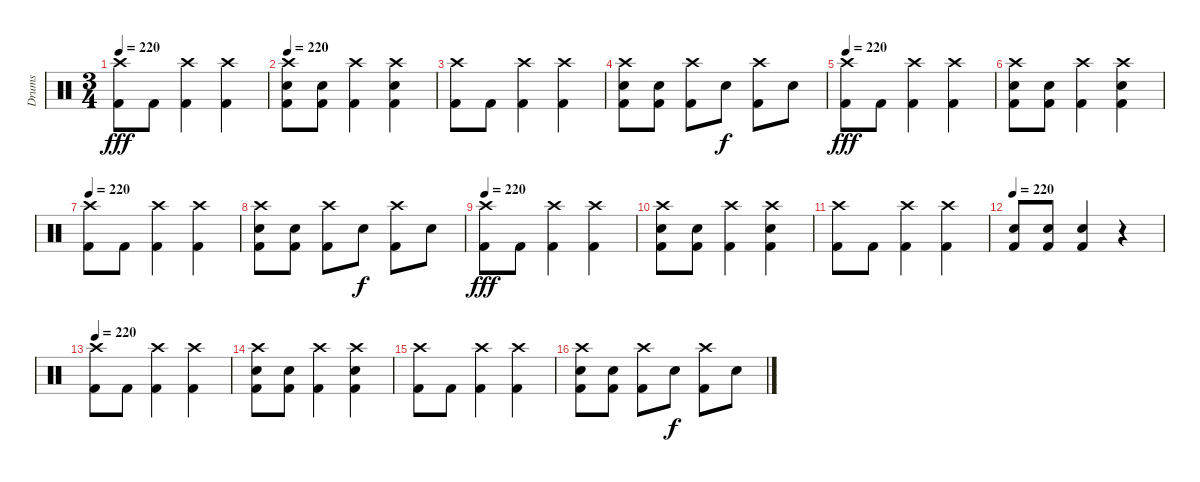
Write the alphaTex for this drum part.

\track ("Drums" "Drums") {instrument percussion}
\staff {score}
\articulation defaults
\ts (3 4)
\tempo 220
\clef neutral
\ks c
("Crash high (hit)" "Kick (hit) 2").8{dy fff} "Kick (hit) 2".8 ("Crash high (hit)" "Kick (hit) 2").4 ("Crash high (hit)" "Kick (hit) 2").4 |
\tempo 220
("Crash high (hit)" "Electric Snare (hit)" "Kick (hit) 2").8 ("Electric Snare (hit)" "Kick (hit) 2").8 ("Crash high (hit)" "Kick (hit) 2").4 ("Crash high (hit)" "Electric Snare (hit)" "Kick (hit) 2").4 |
("Crash high (hit)" "Kick (hit) 2").8 "Kick (hit) 2".8 ("Crash high (hit)" "Kick (hit) 2").4 ("Crash high (hit)" "Kick (hit) 2").4 |
("Crash high (hit)" "Electric Snare (hit)" "Kick (hit) 2").8 ("Electric Snare (hit)" "Kick (hit) 2").8 ("Crash high (hit)" "Kick (hit) 2").8 "Electric Snare (hit)".8{dy f} ("Crash high (hit)" "Kick (hit) 2").8 "Electric Snare (hit)".8 |
\tempo 220
("Crash high (hit)" "Kick (hit) 2").8{dy fff} "Kick (hit) 2".8 ("Crash high (hit)" "Kick (hit) 2").4 ("Crash high (hit)" "Kick (hit) 2").4 |
("Crash high (hit)" "Electric Snare (hit)" "Kick (hit) 2").8 ("Electric Snare (hit)" "Kick (hit) 2").8 ("Crash high (hit)" "Kick (hit) 2").4 ("Crash high (hit)" "Electric Snare (hit)" "Kick (hit) 2").4 |
\tempo 220
("Crash high (hit)" "Kick (hit) 2").8 "Kick (hit) 2".8 ("Crash high (hit)" "Kick (hit) 2").4 ("Crash high (hit)" "Kick (hit) 2").4 |
("Crash high (hit)" "Electric Snare (hit)" "Kick (hit) 2").8 ("Electric Snare (hit)" "Kick (hit) 2").8 ("Crash high (hit)" "Kick (hit) 2").8 "Electric Snare (hit)".8{dy f} ("Crash high (hit)" "Kick (hit) 2").8 "Electric Snare (hit)".8 |
\tempo 220
("Crash high (hit)" "Kick (hit) 2").8{dy fff} "Kick (hit) 2".8 ("Crash high (hit)" "Kick (hit) 2").4 ("Crash high (hit)" "Kick (hit) 2").4 |
("Crash high (hit)" "Electric Snare (hit)" "Kick (hit) 2").8 ("Electric Snare (hit)" "Kick (hit) 2").8 ("Crash high (hit)" "Kick (hit) 2").4 ("Crash high (hit)" "Electric Snare (hit)" "Kick (hit) 2").4 |
("Crash high (hit)" "Kick (hit) 2").8 "Kick (hit) 2".8 ("Crash high (hit)" "Kick (hit) 2").4 ("Crash high (hit)" "Kick (hit) 2").4 |
\tempo 220
("Electric Snare (hit)" "Kick (hit) 2").8 ("Electric Snare (hit)" "Kick (hit) 2").8 ("Electric Snare (hit)" "Kick (hit) 2").4 r.4 |
\tempo 220
("Crash high (hit)" "Kick (hit) 2").8 "Kick (hit) 2".8 ("Crash high (hit)" "Kick (hit) 2").4 ("Crash high (hit)" "Kick (hit) 2").4 |
("Crash high (hit)" "Electric Snare (hit)" "Kick (hit) 2").8 ("Electric Snare (hit)" "Kick (hit) 2").8 ("Crash high (hit)" "Kick (hit) 2").4 ("Crash high (hit)" "Electric Snare (hit)" "Kick (hit) 2").4 |
("Crash high (hit)" "Kick (hit) 2").8 "Kick (hit) 2".8 ("Crash high (hit)" "Kick (hit) 2").4 ("Crash high (hit)" "Kick (hit) 2").4 |
("Crash high (hit)" "Electric Snare (hit)" "Kick (hit) 2").8 ("Electric Snare (hit)" "Kick (hit) 2").8 ("Crash high (hit)" "Kick (hit) 2").8 "Electric Snare (hit)".8{dy f} ("Crash high (hit)" "Kick (hit) 2").8 "Electric Snare (hit)".8
